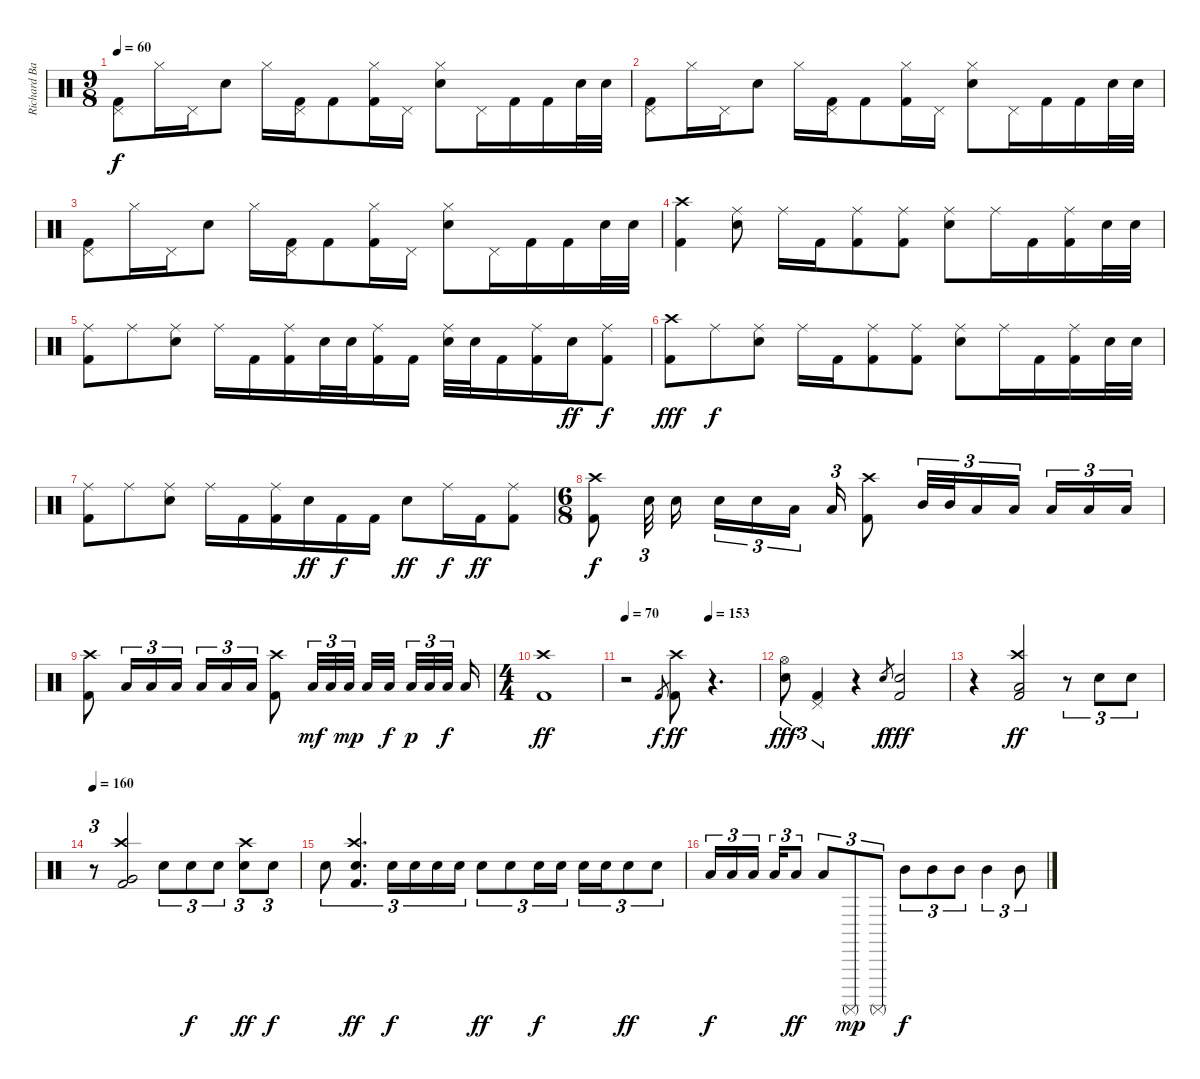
\track ("Richard Bailey" "Richard Ba") {instrument percussion}
\staff {score}
\articulation defaults
\ts (9 8)
\tempo 60
\clef neutral
\ks c
("Pedal Hi-Hat (hit)" "Kick (hit) 2").8{dy f} "Hi-Hat (closed)".16 "Pedal Hi-Hat (hit)".16 "Snare (hit) 2".8 "Hi-Hat (closed)".16 ("Pedal Hi-Hat (hit)" "Kick (hit) 2").16 "Kick (hit) 2".8 ("Hi-Hat (closed)" "Kick (hit) 2").16 "Pedal Hi-Hat (hit)".16 ("Hi-Hat (closed)" "Snare (hit) 2").8 "Pedal Hi-Hat (hit)".16 "Kick (hit) 2".16 "Kick (hit) 2".16 "Snare (hit) 2".32 "Snare (hit) 2".32 |
("Pedal Hi-Hat (hit)" "Kick (hit) 2").8 "Hi-Hat (closed)".16 "Pedal Hi-Hat (hit)".16 "Snare (hit) 2".8 "Hi-Hat (closed)".16 ("Pedal Hi-Hat (hit)" "Kick (hit) 2").16 "Kick (hit) 2".8 ("Hi-Hat (closed)" "Kick (hit) 2").16 "Pedal Hi-Hat (hit)".16 ("Hi-Hat (closed)" "Snare (hit) 2").8 "Pedal Hi-Hat (hit)".16 "Kick (hit) 2".16 "Kick (hit) 2".16 "Snare (hit) 2".32 "Snare (hit) 2".32 |
("Pedal Hi-Hat (hit)" "Kick (hit) 2").8 "Hi-Hat (closed)".16 "Pedal Hi-Hat (hit)".16 "Snare (hit) 2".8 "Hi-Hat (closed)".16 ("Pedal Hi-Hat (hit)" "Kick (hit) 2").16 "Kick (hit) 2".8 ("Hi-Hat (closed)" "Kick (hit) 2").16 "Pedal Hi-Hat (hit)".16 ("Hi-Hat (closed)" "Snare (hit) 2").8 "Pedal Hi-Hat (hit)".16 "Kick (hit) 2".16 "Kick (hit) 2".16 "Snare (hit) 2".32 "Snare (hit) 2".32 |
("Crash high (hit)" "Kick (hit) 2").4 ("Ride (middle)" "Snare (hit) 2").8 "Ride (middle)".16 "Kick (hit) 2".16 ("Ride (middle)" "Kick (hit) 2").8 ("Ride (middle)" "Kick (hit) 2").8 ("Ride (middle)" "Snare (hit) 2").8 "Ride (middle)".16 "Kick (hit) 2".16 ("Ride (middle)" "Kick (hit) 2").16 "Snare (hit) 2".32 "Snare (hit) 2".32 |
("Ride (middle)" "Kick (hit) 2").8 "Ride (middle)".8 ("Ride (middle)" "Snare (hit) 2").8 "Ride (middle)".16 "Kick (hit) 2".16 ("Ride (middle)" "Kick (hit) 2").16 "Snare (hit) 2".32 "Snare (hit) 2".32 ("Ride (middle)" "Kick (hit) 2").16 "Kick (hit) 2".16 ("Ride (middle)" "Snare (hit) 2").32 "Snare (hit) 2".32 "Kick (hit) 2".16 ("Ride (middle)" "Kick (hit) 2").16 "Snare (hit) 2".16{dy ff} ("Ride (middle)" "Kick (hit) 2").8{dy f} |
("Crash high (hit)" "Kick (hit) 2").8{dy fff} "Ride (middle)".8{dy f} ("Ride (middle)" "Snare (hit) 2").8 "Ride (middle)".16 "Kick (hit) 2".16 ("Ride (middle)" "Kick (hit) 2").8 ("Ride (middle)" "Kick (hit) 2").8 ("Ride (middle)" "Snare (hit) 2").8 "Ride (middle)".16 "Kick (hit) 2".16 ("Ride (middle)" "Kick (hit) 2").16 "Snare (hit) 2".32 "Snare (hit) 2".32 |
("Ride (middle)" "Kick (hit) 2").8 "Ride (middle)".8 ("Ride (middle)" "Snare (hit) 2").8 "Ride (middle)".16 "Kick (hit) 2".16 ("Ride (middle)" "Kick (hit) 2").16 "Snare (hit) 2".16{dy ff} "Kick (hit) 2".16{dy f} "Kick (hit) 2".16 "Snare (hit) 2".8{dy ff} "Ride (middle)".16{dy f} "Kick (hit) 2".16{dy ff} ("Ride (middle)" "Kick (hit) 2").8 |
\ts (6 8)
("Crash high (hit)" "Kick (hit) 2").8{dy f} "Electric Snare (hit)".32{tu (3 2)} "Electric Snare (hit)".16 "Electric Snare (hit)".16{tu (3 2)} "Electric Snare (hit)".16{tu (3 2)} "Low Tom (hit)".16{tu (3 2)} "Low Tom (hit)".16{tu (3 2)} ("Crash high (hit)" "Kick (hit) 2").8 "Mid Tom (hit)".32{tu (3 2)} "Mid Tom (hit)".32{tu (3 2)} "Low Floor Tom (hit)".16{tu (3 2)} "Low Floor Tom (hit)".16{tu (3 2)} "Low Floor Tom (hit)".16{tu (3 2)} "Low Floor Tom (hit)".16{tu (3 2)} "Low Floor Tom (hit)".16{tu (3 2)} |
("Crash high (hit)" "Kick (hit) 2").8 "Low Tom (hit)".16{tu (3 2)} "Low Tom (hit)".16{tu (3 2)} "Low Tom (hit)".16{tu (3 2)} "Low Tom (hit)".16{tu (3 2)} "Low Tom (hit)".16{tu (3 2)} "Low Tom (hit)".16{tu (3 2)} ("Crash high (hit)" "Kick (hit) 2").8 "Low Floor Tom (hit)".32{tu (3 2) dy mf} "Low Floor Tom (hit)".32{tu (3 2)} "Low Floor Tom (hit)".32{tu (3 2) dy mp} "Low Floor Tom (hit)".32 "Low Floor Tom (hit)".32{dy f} "Low Floor Tom (hit)".32{tu (3 2) dy p} "Low Floor Tom (hit)".32{tu (3 2)} "Low Floor Tom (hit)".32{tu (3 2) dy f} "Low Floor Tom (hit)".16 |
\ts (4 4)
("Crash high (hit)" "Kick (hit) 2").1{dy ff} |
\tempo 70
\tempo (153 0.625)
r.2 "Kick (hit) 2".8{gr dy f} ("Crash high (hit)" "Kick (hit) 2").8{dy ff} r.4{d} |
("Hi-Hat (open)" "Electric Snare (hit)").8{tu (3 2) dy fff} ("Pedal Hi-Hat (hit)" "Kick (hit) 2").4{tu (3 2)} r.4 "Electric Snare (hit)".8{gr dy f} ("Electric Snare (hit)" "Kick (hit) 2").2{dy fff} |
r.4 ("Crash high (hit)" "Low Tom (hit)" "Kick (hit) 2").2{dy ff} r.8{tu (3 2)} "Electric Snare (hit)".8{tu (3 2)} "Electric Snare (hit)".8{tu (3 2)} |
\tempo 160
r.8{tu (3 2)} ("Crash high (hit)" "Very Low Tom (hit)" "Kick (hit) 2").2 "Electric Snare (hit)".8{tu (3 2)} "Electric Snare (hit)".8{tu (3 2) dy f} "Electric Snare (hit)".8{tu (3 2)} ("Crash high (hit)" "Electric Snare (hit)").8{tu (3 2) dy ff} "Electric Snare (hit)".8{tu (3 2) dy f} |
"Electric Snare (hit)".8{tu (3 2)} ("Crash high (hit)" "Electric Snare (hit)" "Kick (hit) 2").4{d tu (3 2) dy ff} "Electric Snare (hit)".16{tu (3 2) dy f} "Electric Snare (hit)".16{tu (3 2)} "Electric Snare (hit)".16{tu (3 2)} "Electric Snare (hit)".16{tu (3 2)} "Electric Snare (hit)".8{tu (3 2) dy ff} "Electric Snare (hit)".8{tu (3 2)} "Electric Snare (hit)".16{tu (3 2) dy f} "Electric Snare (hit)".16{tu (3 2)} "Electric Snare (hit)".16{tu (3 2)} "Electric Snare (hit)".16{tu (3 2)} "Electric Snare (hit)".8{tu (3 2) dy ff} "Electric Snare (hit)".8{tu (3 2)} |
"Low Floor Tom (hit)".16{tu (3 2) dy f} "Low Floor Tom (hit)".16{tu (3 2)} "Low Floor Tom (hit)".16{tu (3 2)} "Low Floor Tom (hit)".16{tu (3 2)} "Low Floor Tom (hit)".8{tu (3 2) dy ff} "Low Floor Tom (hit)".8{tu (3 2)} "Surdo (mute)".8{tu (3 2) dy mp} "Surdo (mute)".8{tu (3 2)} "Mid Tom (hit)".8{tu (3 2) dy f} "Mid Tom (hit)".8{tu (3 2)} "Mid Tom (hit)".8{tu (3 2)} "Mid Tom (hit)".4{tu (3 2)} "Mid Tom (hit)".8{tu (3 2)}
